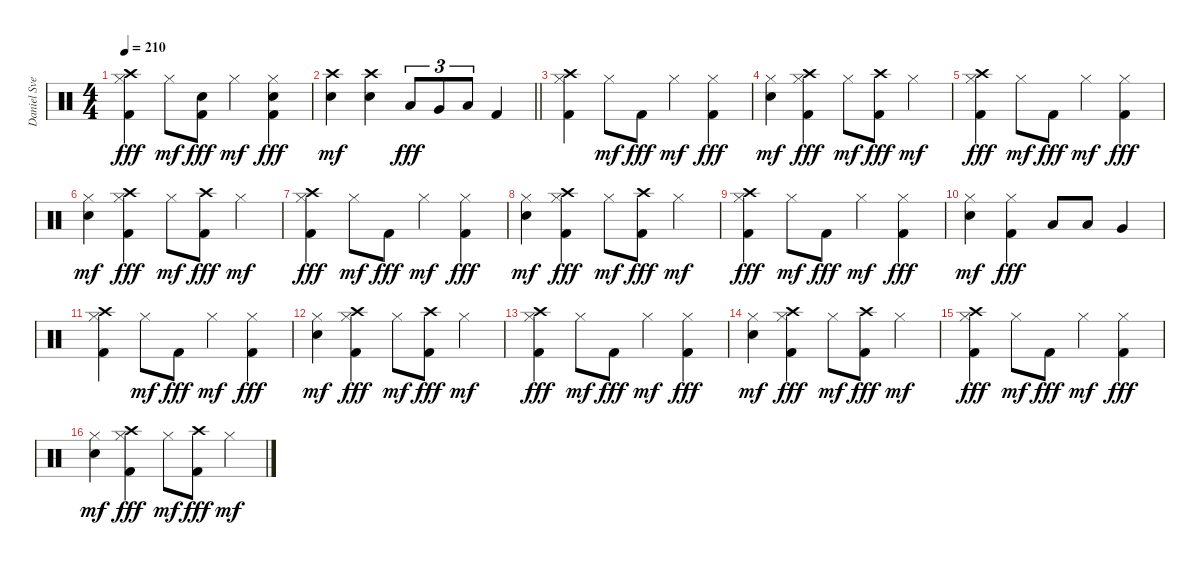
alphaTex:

\track ("Daniel Svensson" "Daniel Sve") {instrument percussion}
\staff {score}
\articulation defaults
\ts (4 4)
\tempo 210
\clef neutral
\ks c
("Crash high (hit)" "Hi-Hat (closed)" "Kick (hit) 2").4{dy fff} "Hi-Hat (closed)".8{dy mf} ("Electric Snare (hit)" "Kick (hit) 2").8{dy fff} "Hi-Hat (closed)".4{dy mf} ("Hi-Hat (closed)" "Electric Snare (hit)" "Kick (hit) 2").4{dy fff} |
\barLineRight lightlight
("Crash high (hit)" "Electric Snare (hit)").4{dy mf} ("Crash high (hit)" "Electric Snare (hit)").4 "Low Tom (hit)".8{tu (3 2) dy fff} "Very Low Tom (hit)".8{tu (3 2)} "Low Floor Tom (hit)".8{tu (3 2)} "Kick (hit) 2".4 |
("Crash high (hit)" "Hi-Hat (closed)" "Kick (hit) 2").4 "Hi-Hat (closed)".8{dy mf} "Kick (hit) 2".8{dy fff} "Hi-Hat (closed)".4{dy mf} ("Hi-Hat (closed)" "Kick (hit) 2").4{dy fff} |
("Hi-Hat (closed)" "Electric Snare (hit)").4{dy mf} ("Crash high (hit)" "Hi-Hat (closed)" "Kick (hit) 2").4{dy fff} "Hi-Hat (closed)".8{dy mf} ("Crash high (hit)" "Kick (hit) 2").8{dy fff} "Hi-Hat (closed)".4{dy mf} |
("Crash high (hit)" "Hi-Hat (closed)" "Kick (hit) 2").4{dy fff} "Hi-Hat (closed)".8{dy mf} "Kick (hit) 2".8{dy fff} "Hi-Hat (closed)".4{dy mf} ("Hi-Hat (closed)" "Kick (hit) 2").4{dy fff} |
("Hi-Hat (closed)" "Electric Snare (hit)").4{dy mf} ("Crash high (hit)" "Hi-Hat (closed)" "Kick (hit) 2").4{dy fff} "Hi-Hat (closed)".8{dy mf} ("Crash high (hit)" "Kick (hit) 2").8{dy fff} "Hi-Hat (closed)".4{dy mf} |
("Crash high (hit)" "Hi-Hat (closed)" "Kick (hit) 2").4{dy fff} "Hi-Hat (closed)".8{dy mf} "Kick (hit) 2".8{dy fff} "Hi-Hat (closed)".4{dy mf} ("Hi-Hat (closed)" "Kick (hit) 2").4{dy fff} |
("Hi-Hat (closed)" "Electric Snare (hit)").4{dy mf} ("Crash high (hit)" "Hi-Hat (closed)" "Kick (hit) 2").4{dy fff} "Hi-Hat (closed)".8{dy mf} ("Crash high (hit)" "Kick (hit) 2").8{dy fff} "Hi-Hat (closed)".4{dy mf} |
("Crash high (hit)" "Hi-Hat (closed)" "Kick (hit) 2").4{dy fff} "Hi-Hat (closed)".8{dy mf} "Kick (hit) 2".8{dy fff} "Hi-Hat (closed)".4{dy mf} ("Hi-Hat (closed)" "Kick (hit) 2").4{dy fff} |
("Hi-Hat (closed)" "Electric Snare (hit)").4{dy mf} ("Hi-Hat (closed)" "Kick (hit) 2").4{dy fff} "Low Tom (hit)".8 "Low Tom (hit)".8 "Very Low Tom (hit)".4 |
("Crash high (hit)" "Hi-Hat (closed)" "Kick (hit) 2").4 "Hi-Hat (closed)".8{dy mf} "Kick (hit) 2".8{dy fff} "Hi-Hat (closed)".4{dy mf} ("Hi-Hat (closed)" "Kick (hit) 2").4{dy fff} |
("Hi-Hat (closed)" "Electric Snare (hit)").4{dy mf} ("Crash high (hit)" "Hi-Hat (closed)" "Kick (hit) 2").4{dy fff} "Hi-Hat (closed)".8{dy mf} ("Crash high (hit)" "Kick (hit) 2").8{dy fff} "Hi-Hat (closed)".4{dy mf} |
("Crash high (hit)" "Hi-Hat (closed)" "Kick (hit) 2").4{dy fff} "Hi-Hat (closed)".8{dy mf} "Kick (hit) 2".8{dy fff} "Hi-Hat (closed)".4{dy mf} ("Hi-Hat (closed)" "Kick (hit) 2").4{dy fff} |
("Hi-Hat (closed)" "Electric Snare (hit)").4{dy mf} ("Crash high (hit)" "Hi-Hat (closed)" "Kick (hit) 2").4{dy fff} "Hi-Hat (closed)".8{dy mf} ("Crash high (hit)" "Kick (hit) 2").8{dy fff} "Hi-Hat (closed)".4{dy mf} |
("Crash high (hit)" "Hi-Hat (closed)" "Kick (hit) 2").4{dy fff} "Hi-Hat (closed)".8{dy mf} "Kick (hit) 2".8{dy fff} "Hi-Hat (closed)".4{dy mf} ("Hi-Hat (closed)" "Kick (hit) 2").4{dy fff} |
("Hi-Hat (closed)" "Electric Snare (hit)").4{dy mf} ("Crash high (hit)" "Hi-Hat (closed)" "Kick (hit) 2").4{dy fff} "Hi-Hat (closed)".8{dy mf} ("Crash high (hit)" "Kick (hit) 2").8{dy fff} "Hi-Hat (closed)".4{dy mf}
